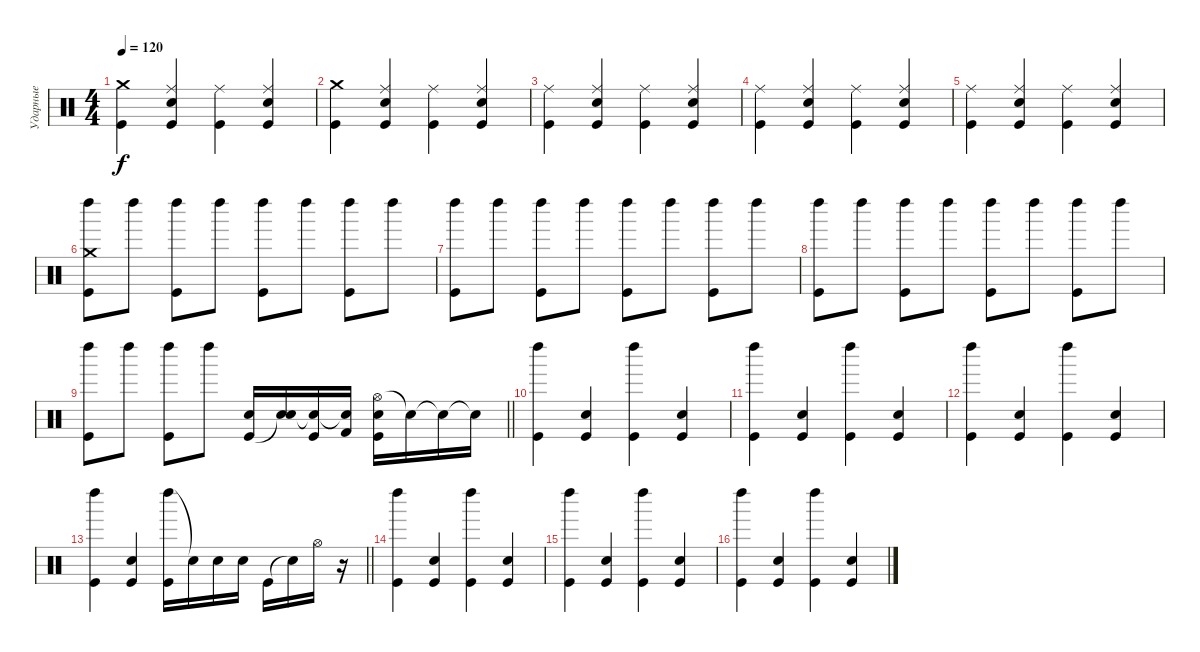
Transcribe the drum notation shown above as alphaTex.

\track ("Ударные" "Ударные") {instrument percussion}
\staff {score}
\articulation defaults
\ts (4 4)
\tempo 120
\clef neutral
\ks c
("Crash medium (hit)" "Kick (hit)").4{dy f} ("Ride (middle)" "Kick (hit)" "Snare (hit) 2").4 ("Ride (middle)" "Kick (hit)").4 ("Ride (middle)" "Kick (hit)" "Snare (hit) 2").4 |
("Crash medium (hit)" "Kick (hit)").4 ("Ride (middle)" "Kick (hit)" "Snare (hit) 2").4 ("Ride (middle)" "Kick (hit)").4 ("Ride (middle)" "Kick (hit)" "Snare (hit) 2").4 |
("Ride (middle)" "Kick (hit)").4 ("Ride (middle)" "Kick (hit)" "Snare (hit) 2").4 ("Ride (middle)" "Kick (hit)").4 ("Ride (middle)" "Kick (hit)" "Snare (hit) 2").4 |
("Ride (middle)" "Kick (hit)").4 ("Ride (middle)" "Kick (hit)" "Snare (hit) 2").4 ("Ride (middle)" "Kick (hit)").4 ("Ride (middle)" "Kick (hit)" "Snare (hit) 2").4 |
("Ride (middle)" "Kick (hit)").4 ("Ride (middle)" "Kick (hit)" "Snare (hit) 2").4 ("Ride (middle)" "Kick (hit)").4 ("Ride (middle)" "Kick (hit)" "Snare (hit) 2").4 |
("Left Maraca (hit)" "Kick (hit)" "Crash medium (hit)").8 "Left Maraca (hit)".8 ("Left Maraca (hit)" "Kick (hit)").8 "Left Maraca (hit)".8 ("Left Maraca (hit)" "Kick (hit)").8 "Left Maraca (hit)".8 ("Left Maraca (hit)" "Kick (hit)").8 "Left Maraca (hit)".8 |
("Left Maraca (hit)" "Kick (hit)").8 "Left Maraca (hit)".8 ("Left Maraca (hit)" "Kick (hit)").8 "Left Maraca (hit)".8 ("Left Maraca (hit)" "Kick (hit)").8 "Left Maraca (hit)".8 ("Left Maraca (hit)" "Kick (hit)").8 "Left Maraca (hit)".8 |
("Left Maraca (hit)" "Kick (hit)").8 "Left Maraca (hit)".8 ("Left Maraca (hit)" "Kick (hit)").8 "Left Maraca (hit)".8 ("Left Maraca (hit)" "Kick (hit)").8 "Left Maraca (hit)".8 ("Left Maraca (hit)" "Kick (hit)").8 "Left Maraca (hit)".8 |
\barLineRight lightlight
("Left Maraca (hit)" "Kick (hit)").8 "Left Maraca (hit)".8 ("Left Maraca (hit)" "Kick (hit)").8 "Left Maraca (hit)".8 ("Kick (hit)" "Snare (hit) 2").16 ("Snare (hit)"{t} "Snare (hit) 2").16 ("Snare (hit)"{t} "Kick (hit)").16 ("Snare (hit)"{t} "Kick (hit) 2").16 ("Hi-Hat (open)" "Kick (hit)" "Snare (hit) 2").16 "Snare (hit)"{t}.16 "Snare (hit)"{t}.16 "Snare (hit)"{t}.16 |
("Left Maraca (hit)" "Kick (hit)").4 ("Kick (hit)" "Snare (hit) 2").4 ("Left Maraca (hit)" "Kick (hit)").4 ("Kick (hit)" "Snare (hit) 2").4 |
("Left Maraca (hit)" "Kick (hit)").4 ("Kick (hit)" "Snare (hit) 2").4 ("Left Maraca (hit)" "Kick (hit)").4 ("Kick (hit)" "Snare (hit) 2").4 |
("Left Maraca (hit)" "Kick (hit)").4 ("Kick (hit)" "Snare (hit) 2").4 ("Left Maraca (hit)" "Kick (hit)").4 ("Kick (hit)" "Snare (hit) 2").4 |
\barLineRight lightlight
("Left Maraca (hit)" "Kick (hit)").4 ("Kick (hit)" "Snare (hit) 2").4 ("Left Maraca (hit)" "Kick (hit)").16 "Snare (hit) 2"{t}.16 "Snare (hit) 2".16 "Snare (hit) 2".16 "Kick (hit)".16 "Snare (hit)"{t}.16 "Hi-Hat (open)".16 r.16 |
("Left Maraca (hit)" "Kick (hit)").4 ("Kick (hit)" "Snare (hit) 2").4 ("Left Maraca (hit)" "Kick (hit)").4 ("Kick (hit)" "Snare (hit) 2").4 |
("Left Maraca (hit)" "Kick (hit)").4 ("Kick (hit)" "Snare (hit) 2").4 ("Left Maraca (hit)" "Kick (hit)").4 ("Kick (hit)" "Snare (hit) 2").4 |
("Left Maraca (hit)" "Kick (hit)").4 ("Kick (hit)" "Snare (hit) 2").4 ("Left Maraca (hit)" "Kick (hit)").4 ("Kick (hit)" "Snare (hit) 2").4
